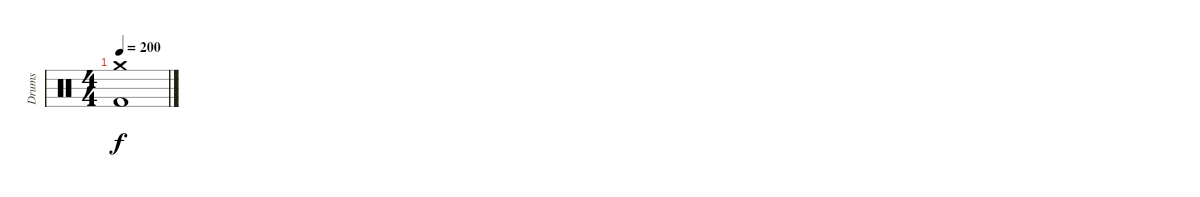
\track ("Drums" "Drums") {instrument percussion}
\staff {score}
\articulation defaults
\ts (4 4)
\tempo 200
\clef neutral
\ks c
("Crash medium (hit)" "Kick (hit) 2").1{dy f}
